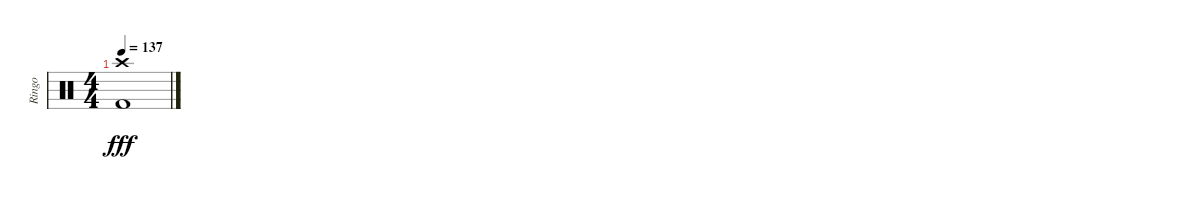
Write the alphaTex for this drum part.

\track ("Ringo" "Ringo") {instrument percussion}
\staff {score}
\articulation defaults
\ts (4 4)
\tempo 137
\clef neutral
\ks c
("Kick (hit) 2" "Crash high (hit)").1{dy fff}
